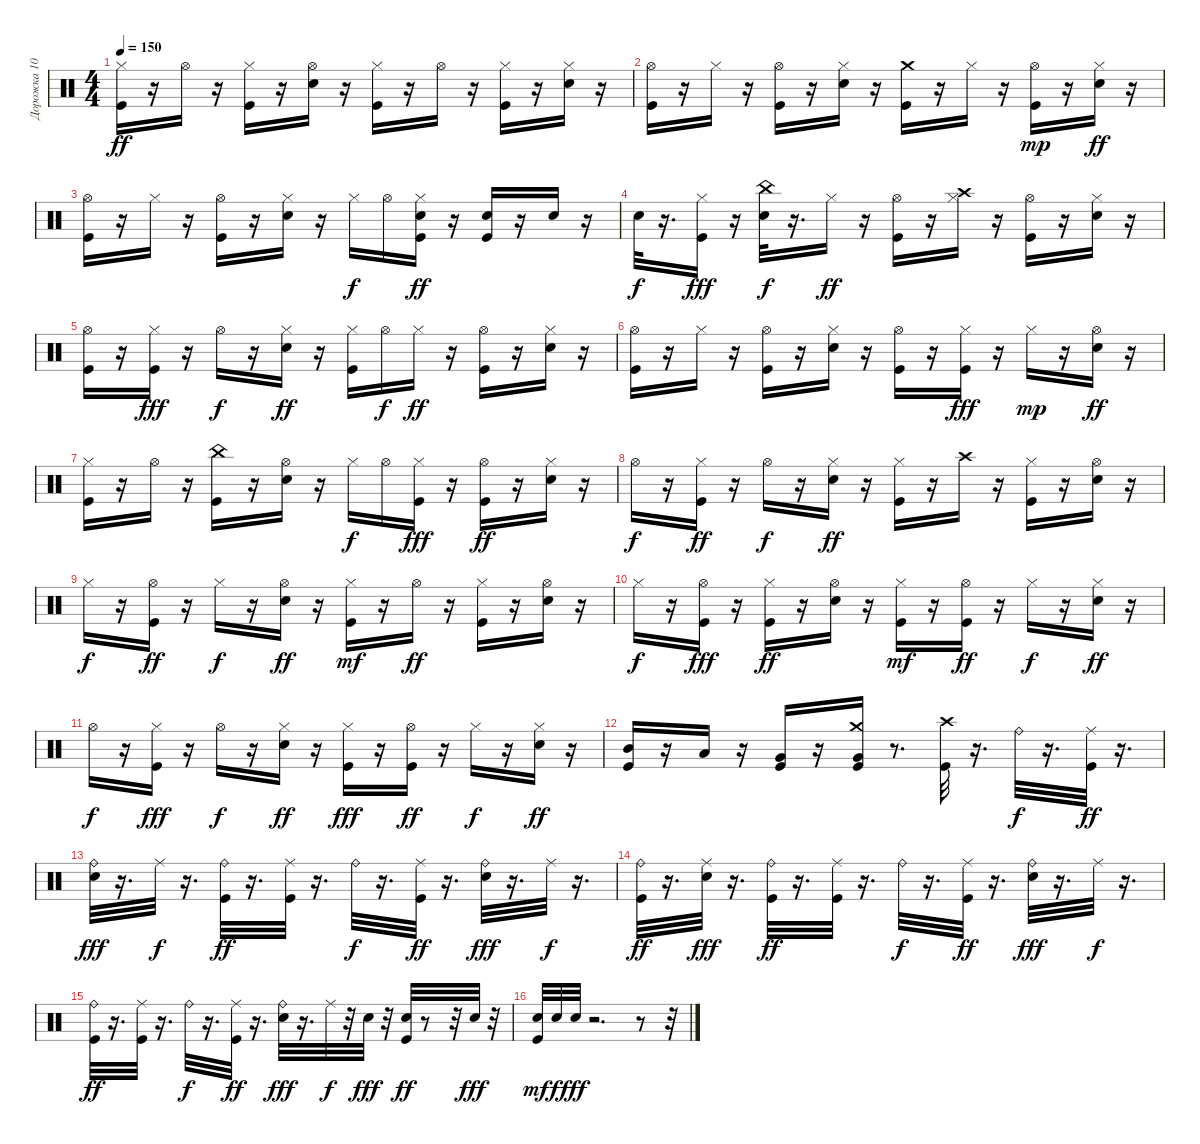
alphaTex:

\track ("Дорожка 10" "Дорожка 10") {instrument percussion}
\staff {score}
\articulation defaults
\ts (4 4)
\tempo 150
\clef neutral
\ks c
("Kick (hit)" "Hi-Hat (closed)").16{dy ff} r.16 "Hi-Hat (open)".16 r.16 ("Hi-Hat (closed)" "Kick (hit)").16 r.16 ("Electric Snare (hit)" "Hi-Hat (open)").16 r.16 ("Hi-Hat (closed)" "Kick (hit)").16 r.16 "Hi-Hat (open)".16 r.16 ("Hi-Hat (closed)" "Kick (hit)").16 r.16 ("Electric Snare (hit)" "Hi-Hat (closed)").16 r.16 |
("Hi-Hat (open)" "Kick (hit)").16 r.16 "Hi-Hat (closed)".16 r.16 ("Hi-Hat (open)" "Kick (hit)").16 r.16 ("Hi-Hat (closed)" "Electric Snare (hit)").16 r.16 ("Crash medium (hit)" "Kick (hit)").16 r.16 "Hi-Hat (closed)".16 r.16 ("Kick (hit)" "Hi-Hat (open)").16{dy mp} r.16 ("Hi-Hat (closed)" "Electric Snare (hit)").16{dy ff} r.16 |
("Hi-Hat (open)" "Kick (hit)").16 r.16 "Hi-Hat (closed)".16 r.16 ("Hi-Hat (open)" "Kick (hit)").16 r.16 ("Hi-Hat (closed)" "Electric Snare (hit)").16 r.16 "Hi-Hat (closed)".16{dy f} "Hi-Hat (open)".16 ("Kick (hit)" "Hi-Hat (closed)" "Electric Snare (hit)").16{dy ff} r.16 ("Electric Snare (hit)" "Kick (hit)").16 r.16 "Electric Snare (hit)".16 r.16 |
"Electric Snare (hit)".32{dy f} r.16{d} ("Hi-Hat (closed)" "Kick (hit)").16{dy fff} r.16 ("China (hit)" "Electric Snare (hit)").32{dy f} r.16{d} "Hi-Hat (closed)".16{dy ff} r.16 ("Hi-Hat (open)" "Kick (hit)").16 r.16 ("Crash high (hit)" "Hi-Hat (closed)").16 r.16 ("Hi-Hat (open)" "Kick (hit)").16 r.16 ("Electric Snare (hit)" "Hi-Hat (closed)").16 r.16 |
("Kick (hit)" "Hi-Hat (open)").16 r.16 ("Hi-Hat (closed)" "Kick (hit)").16{dy fff} r.16 "Hi-Hat (open)".16{dy f} r.16 ("Electric Snare (hit)" "Hi-Hat (closed)").16{dy ff} r.16 ("Kick (hit)" "Hi-Hat (closed)").16 "Hi-Hat (open)".16{dy f} "Hi-Hat (closed)".16{dy ff} r.16 ("Hi-Hat (open)" "Kick (hit)").16 r.16 ("Electric Snare (hit)" "Hi-Hat (closed)").16 r.16 |
("Hi-Hat (open)" "Kick (hit)").16 r.16 "Hi-Hat (closed)".16 r.16 ("Kick (hit)" "Hi-Hat (open)").16 r.16 ("Hi-Hat (closed)" "Electric Snare (hit)").16 r.16 ("Kick (hit)" "Hi-Hat (open)").16 r.16 ("Hi-Hat (closed)" "Kick (hit)").16{dy fff} r.16 "Hi-Hat (closed)".16{dy mp} r.16 ("Electric Snare (hit)" "Hi-Hat (open)").16{dy ff} r.16 |
("Hi-Hat (closed)" "Kick (hit)").16 r.16 "Hi-Hat (open)".16 r.16 ("Kick (hit)" "China (hit)").16 r.16 ("Electric Snare (hit)" "Hi-Hat (open)").16 r.16 "Hi-Hat (closed)".16{dy f} "Hi-Hat (open)".16 ("Hi-Hat (closed)" "Kick (hit)").16{dy fff} r.16 ("Kick (hit)" "Hi-Hat (open)").16{dy ff} r.16 ("Hi-Hat (closed)" "Electric Snare (hit)").16 r.16 |
"Hi-Hat (open)".16{dy f} r.16 ("Kick (hit)" "Hi-Hat (closed)").16{dy ff} r.16 "Hi-Hat (open)".16{dy f} r.16 ("Electric Snare (hit)" "Hi-Hat (closed)").16{dy ff} r.16 ("Hi-Hat (closed)" "Kick (hit)").16 r.16 "Crash high (hit)".16 r.16 ("Kick (hit)" "Hi-Hat (closed)").16 r.16 ("Electric Snare (hit)" "Hi-Hat (open)").16 r.16 |
"Hi-Hat (closed)".16{dy f} r.16 ("Kick (hit)" "Hi-Hat (open)").16{dy ff} r.16 "Hi-Hat (closed)".16{dy f} r.16 ("Hi-Hat (open)" "Electric Snare (hit)").16{dy ff} r.16 ("Kick (hit)" "Hi-Hat (closed)").16{dy mf} r.16 "Hi-Hat (open)".16{dy ff} r.16 ("Kick (hit)" "Hi-Hat (closed)").16 r.16 ("Electric Snare (hit)" "Hi-Hat (open)").16 r.16 |
"Hi-Hat (closed)".16{dy f} r.16 ("Hi-Hat (open)" "Kick (hit)").16{dy fff} r.16 ("Hi-Hat (closed)" "Kick (hit)").16{dy ff} r.16 ("Hi-Hat (open)" "Electric Snare (hit)").16 r.16 ("Kick (hit)" "Hi-Hat (closed)").16{dy mf} r.16 ("Kick (hit)" "Hi-Hat (open)").16{dy ff} r.16 "Hi-Hat (closed)".16{dy f} r.16 ("Hi-Hat (closed)" "Electric Snare (hit)").16{dy ff} r.16 |
"Hi-Hat (open)".16{dy f} r.16 ("Hi-Hat (closed)" "Kick (hit)").16{dy fff} r.16 "Hi-Hat (open)".16{dy f} r.16 ("Electric Snare (hit)" "Hi-Hat (closed)").16{dy ff} r.16 ("Hi-Hat (closed)" "Kick (hit)").16{dy fff} r.16 ("Kick (hit)" "Hi-Hat (open)").16{dy ff} r.16 "Hi-Hat (closed)".16{dy f} r.16 ("Electric Snare (hit)" "Hi-Hat (closed)").16{dy ff} r.16 |
("Mid Tom (hit)" "Kick (hit)").16 r.16 "Low Tom (hit)".16 r.16 ("Kick (hit)" "Very Low Tom (hit)").16 r.16 ("Very Low Tom (hit)" "Kick (hit)" "Crash medium (hit)").16 r.8{d} ("Crash high (hit)" "Kick (hit)").32 r.16{d} "Ride (bell)".32{dy f} r.16{d} ("Ride (middle)" "Kick (hit)").32{dy ff} r.16{d} |
("Ride (bell)" "Electric Snare (hit)").32{dy fff} r.16{d} "Ride (middle)".32{dy f} r.16{d} ("Kick (hit)" "Ride (bell)").32{dy ff} r.16{d} ("Kick (hit)" "Ride (middle)").32 r.16{d} "Ride (bell)".32{dy f} r.16{d} ("Kick (hit)" "Ride (middle)").32{dy ff} r.16{d} ("Electric Snare (hit)" "Ride (bell)").32{dy fff} r.16{d} "Ride (middle)".32{dy f} r.16{d} |
("Kick (hit)" "Ride (bell)").32{dy ff} r.16{d} ("Ride (middle)" "Electric Snare (hit)").32{dy fff} r.16{d} ("Kick (hit)" "Ride (bell)").32{dy ff} r.16{d} ("Kick (hit)" "Ride (middle)").32 r.16{d} "Ride (bell)".32{dy f} r.16{d} ("Kick (hit)" "Ride (middle)").32{dy ff} r.16{d} ("Ride (bell)" "Electric Snare (hit)").32{dy fff} r.16{d} "Ride (middle)".32{dy f} r.16{d} |
("Kick (hit)" "Ride (bell)").32{dy ff} r.16{d} ("Kick (hit)" "Ride (middle)").32 r.16{d} "Ride (bell)".32{dy f} r.16{d} ("Kick (hit)" "Ride (middle)").32{dy ff} r.16{d} ("Electric Snare (hit)" "Ride (bell)").32{dy fff} r.16{d} "Ride (middle)".32{dy f} r.32 "Electric Snare (hit)".32{dy fff} r.32 ("Electric Snare (hit)" "Kick (hit)").32{dy ff} r.8 r.32 "Electric Snare (hit)".32{dy fff} r.32 |
("Kick (hit)" "Electric Snare (hit)").32{dy mf} "Electric Snare (hit)".32{dy f} "Electric Snare (hit)".32{dy fff} r.2{d} r.8 r.32
